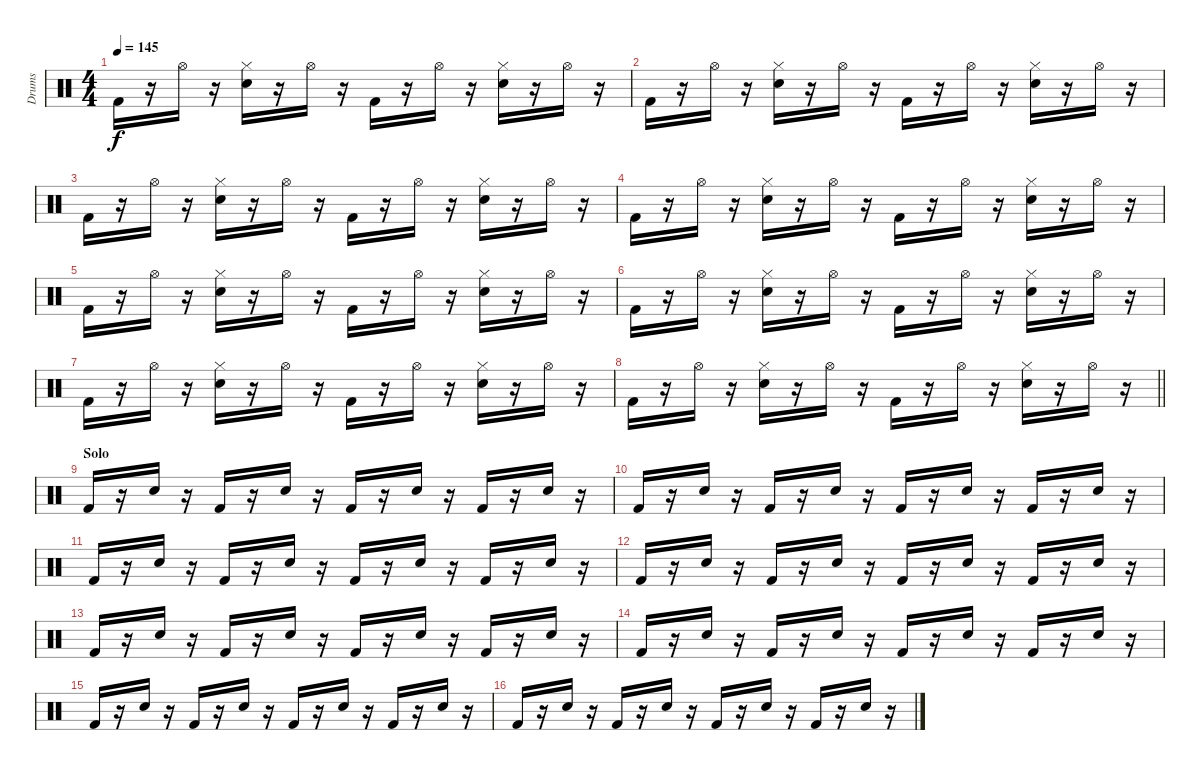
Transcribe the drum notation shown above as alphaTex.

\track ("Drums" "Drums") {instrument percussion}
\staff {score}
\articulation defaults
\ts (4 4)
\tempo 145
\clef neutral
\ks c "Kick (hit) 2".16{dy f}
r.16 "Hi-Hat (open)".16 r.16 ("Snare (hit) 2" "Hi-Hat (closed)").16 r.16 "Hi-Hat (open)".16 r.16 "Kick (hit) 2".16 r.16 "Hi-Hat (open)".16 r.16 ("Snare (hit) 2" "Hi-Hat (closed)").16 r.16 "Hi-Hat (open)".16 r.16 |
"Kick (hit) 2".16 r.16 "Hi-Hat (open)".16 r.16 ("Snare (hit) 2" "Hi-Hat (closed)").16 r.16 "Hi-Hat (open)".16 r.16 "Kick (hit) 2".16 r.16 "Hi-Hat (open)".16 r.16 ("Snare (hit) 2" "Hi-Hat (closed)").16 r.16 "Hi-Hat (open)".16 r.16 |
"Kick (hit) 2".16 r.16 "Hi-Hat (open)".16 r.16 ("Snare (hit) 2" "Hi-Hat (closed)").16 r.16 "Hi-Hat (open)".16 r.16 "Kick (hit) 2".16 r.16 "Hi-Hat (open)".16 r.16 ("Snare (hit) 2" "Hi-Hat (closed)").16 r.16 "Hi-Hat (open)".16 r.16 |
"Kick (hit) 2".16 r.16 "Hi-Hat (open)".16 r.16 ("Snare (hit) 2" "Hi-Hat (closed)").16 r.16 "Hi-Hat (open)".16 r.16 "Kick (hit) 2".16 r.16 "Hi-Hat (open)".16 r.16 ("Snare (hit) 2" "Hi-Hat (closed)").16 r.16 "Hi-Hat (open)".16 r.16 |
"Kick (hit) 2".16 r.16 "Hi-Hat (open)".16 r.16 ("Snare (hit) 2" "Hi-Hat (closed)").16 r.16 "Hi-Hat (open)".16 r.16 "Kick (hit) 2".16 r.16 "Hi-Hat (open)".16 r.16 ("Snare (hit) 2" "Hi-Hat (closed)").16 r.16 "Hi-Hat (open)".16 r.16 |
"Kick (hit) 2".16 r.16 "Hi-Hat (open)".16 r.16 ("Snare (hit) 2" "Hi-Hat (closed)").16 r.16 "Hi-Hat (open)".16 r.16 "Kick (hit) 2".16 r.16 "Hi-Hat (open)".16 r.16 ("Snare (hit) 2" "Hi-Hat (closed)").16 r.16 "Hi-Hat (open)".16 r.16 |
"Kick (hit) 2".16 r.16 "Hi-Hat (open)".16 r.16 ("Snare (hit) 2" "Hi-Hat (closed)").16 r.16 "Hi-Hat (open)".16 r.16 "Kick (hit) 2".16 r.16 "Hi-Hat (open)".16 r.16 ("Snare (hit) 2" "Hi-Hat (closed)").16 r.16 "Hi-Hat (open)".16 r.16 |
\barLineRight lightlight "Kick (hit) 2".16
r.16 "Hi-Hat (open)".16 r.16 ("Snare (hit) 2" "Hi-Hat (closed)").16 r.16 "Hi-Hat (open)".16 r.16 "Kick (hit) 2".16 r.16 "Hi-Hat (open)".16 r.16 ("Snare (hit) 2" "Hi-Hat (closed)").16 r.16 "Hi-Hat (open)".16 r.16 |
\section ("" "Solo")
"Kick (hit) 2".16 r.16 "Hand Clap (hit)".16 r.16 "Kick (hit) 2".16 r.16 "Hand Clap (hit)".16 r.16 "Kick (hit) 2".16 r.16 "Hand Clap (hit)".16 r.16 "Kick (hit) 2".16 r.16 "Hand Clap (hit)".16 r.16 |
"Kick (hit) 2".16 r.16 "Hand Clap (hit)".16 r.16 "Kick (hit) 2".16 r.16 "Hand Clap (hit)".16 r.16 "Kick (hit) 2".16 r.16 "Hand Clap (hit)".16 r.16 "Kick (hit) 2".16 r.16 "Hand Clap (hit)".16 r.16 |
"Kick (hit) 2".16 r.16 "Hand Clap (hit)".16 r.16 "Kick (hit) 2".16 r.16 "Hand Clap (hit)".16 r.16 "Kick (hit) 2".16 r.16 "Hand Clap (hit)".16 r.16 "Kick (hit) 2".16 r.16 "Hand Clap (hit)".16 r.16 |
"Kick (hit) 2".16 r.16 "Hand Clap (hit)".16 r.16 "Kick (hit) 2".16 r.16 "Hand Clap (hit)".16 r.16 "Kick (hit) 2".16 r.16 "Hand Clap (hit)".16 r.16 "Kick (hit) 2".16 r.16 "Hand Clap (hit)".16 r.16 |
"Kick (hit) 2".16 r.16 "Hand Clap (hit)".16 r.16 "Kick (hit) 2".16 r.16 "Hand Clap (hit)".16 r.16 "Kick (hit) 2".16 r.16 "Hand Clap (hit)".16 r.16 "Kick (hit) 2".16 r.16 "Hand Clap (hit)".16 r.16 |
"Kick (hit) 2".16 r.16 "Hand Clap (hit)".16 r.16 "Kick (hit) 2".16 r.16 "Hand Clap (hit)".16 r.16 "Kick (hit) 2".16 r.16 "Hand Clap (hit)".16 r.16 "Kick (hit) 2".16 r.16 "Hand Clap (hit)".16 r.16 |
"Kick (hit) 2".16 r.16 "Hand Clap (hit)".16 r.16 "Kick (hit) 2".16 r.16 "Hand Clap (hit)".16 r.16 "Kick (hit) 2".16 r.16 "Hand Clap (hit)".16 r.16 "Kick (hit) 2".16 r.16 "Hand Clap (hit)".16 r.16 |
"Kick (hit) 2".16 r.16 "Hand Clap (hit)".16 r.16 "Kick (hit) 2".16 r.16 "Hand Clap (hit)".16 r.16 "Kick (hit) 2".16 r.16 "Hand Clap (hit)".16 r.16 "Kick (hit) 2".16 r.16 "Hand Clap (hit)".16 r.16
